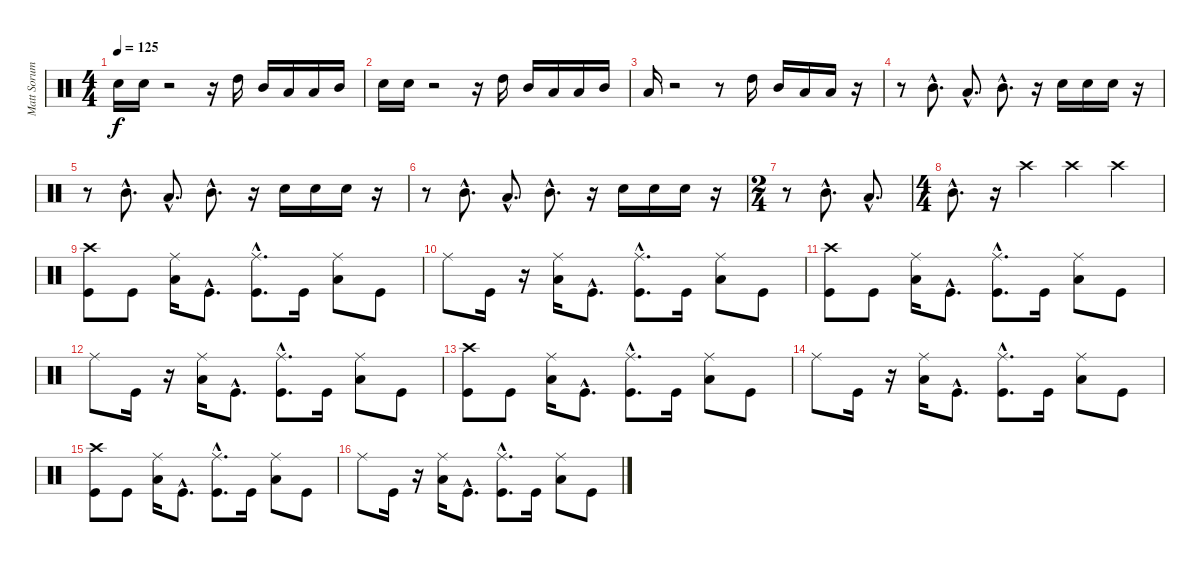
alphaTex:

\track ("Matt Sorum" "Matt Sorum") {instrument percussion}
\staff {score}
\articulation defaults
\ts (4 4)
\tempo 125
\clef neutral
\ks c "Electric Snare (hit)".16{dy f} "Electric Snare (hit)".16
r.2 r.16 "High Tom (hit)".16 "Mid Tom (hit)".16 "Low Tom (hit)".16 "Low Tom (hit)".16 "Mid Tom (hit)".16 |
"Electric Snare (hit)".16 "Electric Snare (hit)".16 r.2 r.16 "High Tom (hit)".16 "Mid Tom (hit)".16 "Low Tom (hit)".16 "Low Tom (hit)".16 "Mid Tom (hit)".16 |
"Low Tom (hit)".16 r.2 r.8 "High Tom (hit)".16 "Mid Tom (hit)".16 "Low Tom (hit)".16 "Low Tom (hit)".16 r.16 |
r.8 "Mid Tom (hit)"{hac}.8{d} "Low Tom (hit)"{hac}.8{d} "Mid Tom (hit)"{hac}.8{d} r.16 "Electric Snare (hit)".16 "Electric Snare (hit)".16 "Electric Snare (hit)".16 r.16 |
r.8 "Mid Tom (hit)"{hac}.8{d} "Low Tom (hit)"{hac}.8{d} "Mid Tom (hit)"{hac}.8{d} r.16 "Electric Snare (hit)".16 "Electric Snare (hit)".16 "Electric Snare (hit)".16 r.16 |
r.8 "Mid Tom (hit)"{hac}.8{d} "Low Tom (hit)"{hac}.8{d} "Mid Tom (hit)"{hac}.8{d} r.16 "Electric Snare (hit)".16 "Electric Snare (hit)".16 "Electric Snare (hit)".16 r.16 |
\ts (2 4)
r.8 "Mid Tom (hit)"{hac}.8{d} "Low Tom (hit)"{hac}.8{d} |
\ts (4 4)
"Mid Tom (hit)"{hac}.8{d} r.16 "Crash high (hit)".4 "Crash high (hit)".4 "Crash high (hit)".4 |
("Crash high (hit)" "Kick (hit)").8 "Kick (hit)".8 ("Low Tom (hit)" "Ride (middle)").16 "Kick (hit)"{hac}.8{d} ("Ride (middle)" "Kick (hit)"{hac}).8{d} "Kick (hit)".16 ("Low Tom (hit)" "Ride (middle)").8 "Kick (hit)".8 |
"Ride (middle)".8 "Kick (hit)".16 r.16 ("Low Tom (hit)" "Ride (middle)").16 "Kick (hit)"{hac}.8{d} ("Ride (middle)" "Kick (hit)"{hac}).8{d} "Kick (hit)".16 ("Low Tom (hit)" "Ride (middle)").8 "Kick (hit)".8 |
("Crash high (hit)" "Kick (hit)").8 "Kick (hit)".8 ("Low Tom (hit)" "Ride (middle)").16 "Kick (hit)"{hac}.8{d} ("Ride (middle)" "Kick (hit)"{hac}).8{d} "Kick (hit)".16 ("Low Tom (hit)" "Ride (middle)").8 "Kick (hit)".8 |
"Ride (middle)".8 "Kick (hit)".16 r.16 ("Low Tom (hit)" "Ride (middle)").16 "Kick (hit)"{hac}.8{d} ("Ride (middle)" "Kick (hit)"{hac}).8{d} "Kick (hit)".16 ("Low Tom (hit)" "Ride (middle)").8 "Kick (hit)".8 |
("Crash high (hit)" "Kick (hit)").8 "Kick (hit)".8 ("Low Tom (hit)" "Ride (middle)").16 "Kick (hit)"{hac}.8{d} ("Ride (middle)" "Kick (hit)"{hac}).8{d} "Kick (hit)".16 ("Low Tom (hit)" "Ride (middle)").8 "Kick (hit)".8 |
"Ride (middle)".8 "Kick (hit)".16 r.16 ("Low Tom (hit)" "Ride (middle)").16 "Kick (hit)"{hac}.8{d} ("Ride (middle)" "Kick (hit)"{hac}).8{d} "Kick (hit)".16 ("Low Tom (hit)" "Ride (middle)").8 "Kick (hit)".8 |
("Crash high (hit)" "Kick (hit)").8 "Kick (hit)".8 ("Low Tom (hit)" "Ride (middle)").16 "Kick (hit)"{hac}.8{d} ("Ride (middle)" "Kick (hit)"{hac}).8{d} "Kick (hit)".16 ("Low Tom (hit)" "Ride (middle)").8 "Kick (hit)".8 |
"Ride (middle)".8 "Kick (hit)".16 r.16 ("Low Tom (hit)" "Ride (middle)").16 "Kick (hit)"{hac}.8{d} ("Ride (middle)" "Kick (hit)"{hac}).8{d} "Kick (hit)".16 ("Low Tom (hit)" "Ride (middle)").8 "Kick (hit)".8
